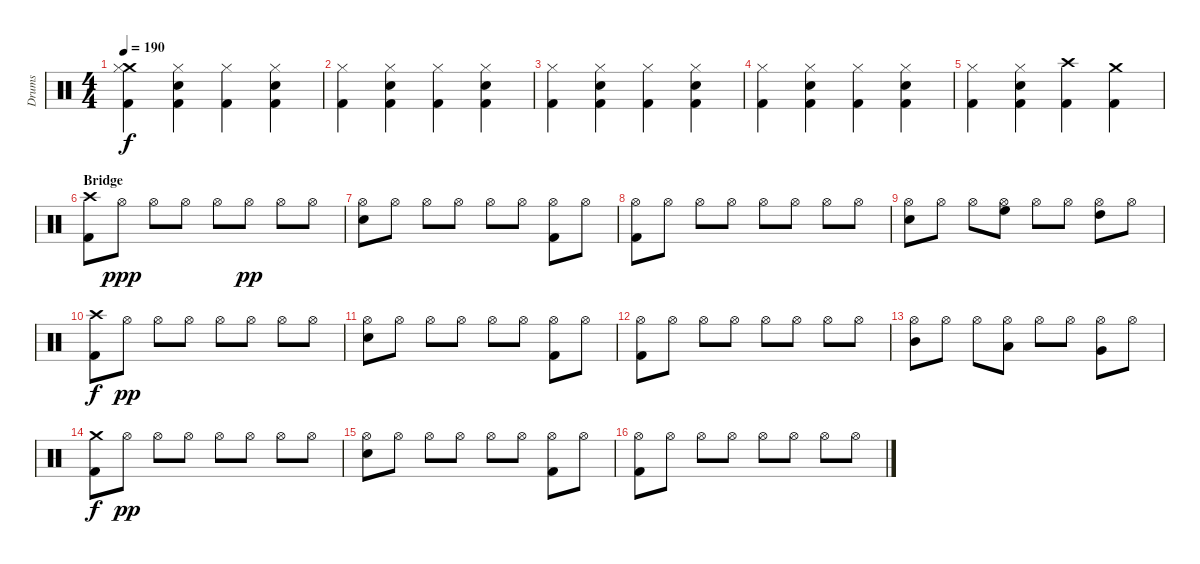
\track ("Drums" "Drums") {instrument percussion}
\staff {score}
\articulation defaults
\ts (4 4)
\tempo 190
\clef neutral
\ks c
("Crash medium (hit)" "Hi-Hat (closed)" "Kick (hit) 2").4{dy f} ("Hi-Hat (closed)" "Snare (hit) 2" "Kick (hit) 2").4 ("Hi-Hat (closed)" "Kick (hit) 2").4 ("Hi-Hat (closed)" "Snare (hit) 2" "Kick (hit) 2").4 |
("Hi-Hat (closed)" "Kick (hit) 2").4 ("Hi-Hat (closed)" "Snare (hit) 2" "Kick (hit) 2").4 ("Hi-Hat (closed)" "Kick (hit) 2").4 ("Hi-Hat (closed)" "Snare (hit) 2" "Kick (hit) 2").4 |
("Hi-Hat (closed)" "Kick (hit) 2").4 ("Hi-Hat (closed)" "Snare (hit) 2" "Kick (hit) 2").4 ("Hi-Hat (closed)" "Kick (hit) 2").4 ("Hi-Hat (closed)" "Snare (hit) 2" "Kick (hit) 2").4 |
("Hi-Hat (closed)" "Kick (hit) 2").4 ("Hi-Hat (closed)" "Snare (hit) 2" "Kick (hit) 2").4 ("Hi-Hat (closed)" "Kick (hit) 2").4 ("Hi-Hat (closed)" "Snare (hit) 2" "Kick (hit) 2").4 |
("Hi-Hat (closed)" "Kick (hit) 2").4 ("Hi-Hat (closed)" "Snare (hit) 2" "Kick (hit) 2").4 ("Crash high (hit)" "Kick (hit) 2").4 ("Crash medium (hit)" "Kick (hit) 2").4 |
\section ("" "Bridge")
("Crash high (hit)" "Kick (hit) 2").8 "Hi-Hat (open)".8{dy ppp} "Hi-Hat (open)".8 "Hi-Hat (open)".8 "Hi-Hat (open)".8 "Hi-Hat (open)".8{dy pp} "Hi-Hat (open)".8 "Hi-Hat (open)".8 |
("Hi-Hat (open)" "Snare (hit) 2").8 "Hi-Hat (open)".8 "Hi-Hat (open)".8 "Hi-Hat (open)".8 "Hi-Hat (open)".8 "Hi-Hat (open)".8 ("Hi-Hat (open)" "Kick (hit) 2").8 "Hi-Hat (open)".8 |
("Hi-Hat (open)" "Kick (hit) 2").8 "Hi-Hat (open)".8 "Hi-Hat (open)".8 "Hi-Hat (open)".8 "Hi-Hat (open)".8 "Hi-Hat (open)".8 "Hi-Hat (open)".8 "Hi-Hat (open)".8 |
("Hi-Hat (open)" "Snare (hit) 2").8 "Hi-Hat (open)".8 "Hi-Hat (open)".8 ("Hi-Hat (open)" "High Floor Tom (hit)").8 "Hi-Hat (open)".8 "Hi-Hat (open)".8 ("Hi-Hat (open)" "High Tom (hit)").8 "Hi-Hat (open)".8 |
("Crash high (hit)" "Kick (hit) 2").8{dy f} "Hi-Hat (open)".8{dy pp} "Hi-Hat (open)".8 "Hi-Hat (open)".8 "Hi-Hat (open)".8 "Hi-Hat (open)".8 "Hi-Hat (open)".8 "Hi-Hat (open)".8 |
("Hi-Hat (open)" "Snare (hit) 2").8 "Hi-Hat (open)".8 "Hi-Hat (open)".8 "Hi-Hat (open)".8 "Hi-Hat (open)".8 "Hi-Hat (open)".8 ("Hi-Hat (open)" "Kick (hit) 2").8 "Hi-Hat (open)".8 |
("Hi-Hat (open)" "Kick (hit) 2").8 "Hi-Hat (open)".8 "Hi-Hat (open)".8 "Hi-Hat (open)".8 "Hi-Hat (open)".8 "Hi-Hat (open)".8 "Hi-Hat (open)".8 "Hi-Hat (open)".8 |
("Hi-Hat (open)" "Mid Tom (hit)").8 "Hi-Hat (open)".8 "Hi-Hat (open)".8 ("Hi-Hat (open)" "Low Tom (hit)").8 "Hi-Hat (open)".8 "Hi-Hat (open)".8 ("Hi-Hat (open)" "Very Low Tom (hit)").8 "Hi-Hat (open)".8 |
("Crash medium (hit)" "Kick (hit) 2").8{dy f} "Hi-Hat (open)".8{dy pp} "Hi-Hat (open)".8 "Hi-Hat (open)".8 "Hi-Hat (open)".8 "Hi-Hat (open)".8 "Hi-Hat (open)".8 "Hi-Hat (open)".8 |
("Hi-Hat (open)" "Snare (hit) 2").8 "Hi-Hat (open)".8 "Hi-Hat (open)".8 "Hi-Hat (open)".8 "Hi-Hat (open)".8 "Hi-Hat (open)".8 ("Hi-Hat (open)" "Kick (hit) 2").8 "Hi-Hat (open)".8 |
("Hi-Hat (open)" "Kick (hit) 2").8 "Hi-Hat (open)".8 "Hi-Hat (open)".8 "Hi-Hat (open)".8 "Hi-Hat (open)".8 "Hi-Hat (open)".8 "Hi-Hat (open)".8 "Hi-Hat (open)".8
